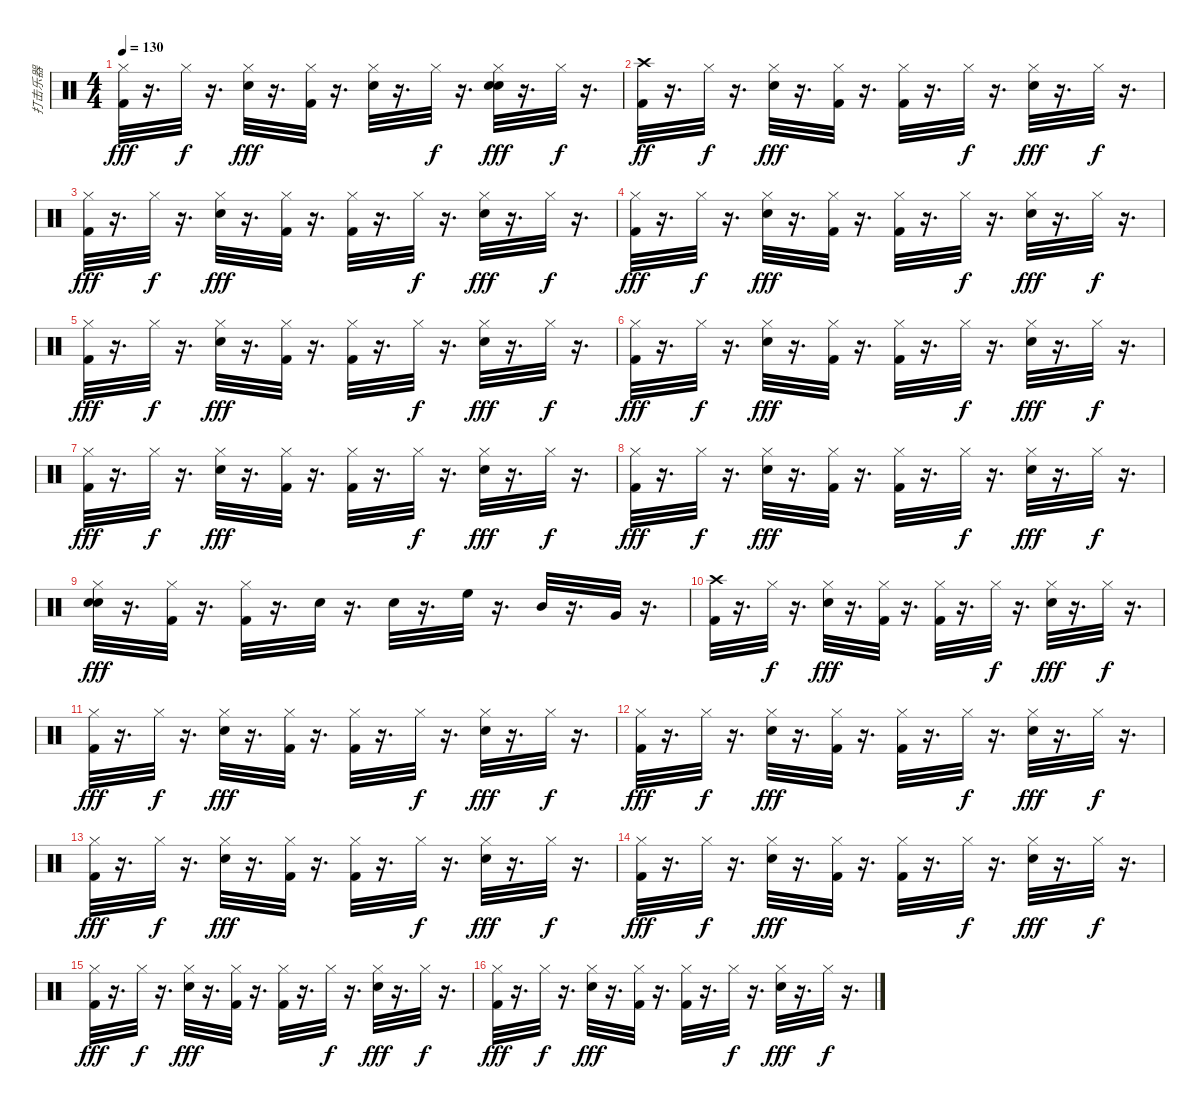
\track ("打击乐器" "打击乐器") {instrument percussion}
\staff {score}
\articulation defaults
\ts (4 4)
\tempo 130
\clef neutral
\ks c
("Kick (hit) 2" "Hi-Hat (closed)").32{dy fff} r.16{d} "Hi-Hat (closed)".32{dy f} r.16{d} ("Hi-Hat (closed)" "Electric Snare (hit)").32{dy fff} r.16{d} ("Kick (hit) 2" "Hi-Hat (closed)").32 r.16{d} ("Electric Snare (hit)" "Hi-Hat (closed)").32 r.16{d} "Hi-Hat (closed)".32{dy f} r.16{d} ("Electric Snare (hit)" "Hi-Hat (closed)" "Electric Snare (hit)").32{dy fff} r.16{d} "Hi-Hat (closed)".32{dy f} r.16{d} |
("Kick (hit) 2" "Crash high (hit)").32{dy ff} r.16{d} "Hi-Hat (closed)".32{dy f} r.16{d} ("Hi-Hat (closed)" "Electric Snare (hit)").32{dy fff} r.16{d} ("Kick (hit) 2" "Hi-Hat (closed)").32 r.16{d} ("Kick (hit) 2" "Hi-Hat (closed)").32 r.16{d} "Hi-Hat (closed)".32{dy f} r.16{d} ("Hi-Hat (closed)" "Electric Snare (hit)").32{dy fff} r.16{d} "Hi-Hat (closed)".32{dy f} r.16{d} |
("Kick (hit) 2" "Hi-Hat (closed)").32{dy fff} r.16{d} "Hi-Hat (closed)".32{dy f} r.16{d} ("Hi-Hat (closed)" "Electric Snare (hit)").32{dy fff} r.16{d} ("Kick (hit) 2" "Hi-Hat (closed)").32 r.16{d} ("Kick (hit) 2" "Hi-Hat (closed)").32 r.16{d} "Hi-Hat (closed)".32{dy f} r.16{d} ("Hi-Hat (closed)" "Electric Snare (hit)").32{dy fff} r.16{d} "Hi-Hat (closed)".32{dy f} r.16{d} |
("Kick (hit) 2" "Hi-Hat (closed)").32{dy fff} r.16{d} "Hi-Hat (closed)".32{dy f} r.16{d} ("Hi-Hat (closed)" "Electric Snare (hit)").32{dy fff} r.16{d} ("Kick (hit) 2" "Hi-Hat (closed)").32 r.16{d} ("Kick (hit) 2" "Hi-Hat (closed)").32 r.16{d} "Hi-Hat (closed)".32{dy f} r.16{d} ("Hi-Hat (closed)" "Electric Snare (hit)").32{dy fff} r.16{d} "Hi-Hat (closed)".32{dy f} r.16{d} |
("Kick (hit) 2" "Hi-Hat (closed)").32{dy fff} r.16{d} "Hi-Hat (closed)".32{dy f} r.16{d} ("Hi-Hat (closed)" "Electric Snare (hit)").32{dy fff} r.16{d} ("Kick (hit) 2" "Hi-Hat (closed)").32 r.16{d} ("Kick (hit) 2" "Hi-Hat (closed)").32 r.16{d} "Hi-Hat (closed)".32{dy f} r.16{d} ("Hi-Hat (closed)" "Electric Snare (hit)").32{dy fff} r.16{d} "Hi-Hat (closed)".32{dy f} r.16{d} |
("Kick (hit) 2" "Hi-Hat (closed)").32{dy fff} r.16{d} "Hi-Hat (closed)".32{dy f} r.16{d} ("Hi-Hat (closed)" "Electric Snare (hit)").32{dy fff} r.16{d} ("Kick (hit) 2" "Hi-Hat (closed)").32 r.16{d} ("Kick (hit) 2" "Hi-Hat (closed)").32 r.16{d} "Hi-Hat (closed)".32{dy f} r.16{d} ("Hi-Hat (closed)" "Electric Snare (hit)").32{dy fff} r.16{d} "Hi-Hat (closed)".32{dy f} r.16{d} |
("Kick (hit) 2" "Hi-Hat (closed)").32{dy fff} r.16{d} "Hi-Hat (closed)".32{dy f} r.16{d} ("Hi-Hat (closed)" "Electric Snare (hit)").32{dy fff} r.16{d} ("Kick (hit) 2" "Hi-Hat (closed)").32 r.16{d} ("Kick (hit) 2" "Hi-Hat (closed)").32 r.16{d} "Hi-Hat (closed)".32{dy f} r.16{d} ("Hi-Hat (closed)" "Electric Snare (hit)").32{dy fff} r.16{d} "Hi-Hat (closed)".32{dy f} r.16{d} |
("Kick (hit) 2" "Hi-Hat (closed)").32{dy fff} r.16{d} "Hi-Hat (closed)".32{dy f} r.16{d} ("Hi-Hat (closed)" "Electric Snare (hit)").32{dy fff} r.16{d} ("Kick (hit) 2" "Hi-Hat (closed)").32 r.16{d} ("Kick (hit) 2" "Hi-Hat (closed)").32 r.16{d} "Hi-Hat (closed)".32{dy f} r.16{d} ("Hi-Hat (closed)" "Electric Snare (hit)").32{dy fff} r.16{d} "Hi-Hat (closed)".32{dy f} r.16{d} |
("Electric Snare (hit)" "Hi-Hat (closed)" "Electric Snare (hit)").32{dy fff} r.16{d} ("Kick (hit) 2" "Hi-Hat (closed)").32 r.16{d} ("Hi-Hat (closed)" "Kick (hit) 2").32 r.16{d} "Electric Snare (hit)".32 r.16{d} "Electric Snare (hit)".32 r.16{d} "High Floor Tom (hit)".32 r.16{d} "Mid Tom (hit)".32 r.16{d} "Very Low Tom (hit)".32 r.16{d} |
("Crash high (hit)" "Kick (hit) 2").32 r.16{d} "Hi-Hat (closed)".32{dy f} r.16{d} ("Hi-Hat (closed)" "Electric Snare (hit)").32{dy fff} r.16{d} ("Kick (hit) 2" "Hi-Hat (closed)").32 r.16{d} ("Kick (hit) 2" "Hi-Hat (closed)").32 r.16{d} "Hi-Hat (closed)".32{dy f} r.16{d} ("Hi-Hat (closed)" "Electric Snare (hit)").32{dy fff} r.16{d} "Hi-Hat (closed)".32{dy f} r.16{d} |
("Kick (hit) 2" "Hi-Hat (closed)").32{dy fff} r.16{d} "Hi-Hat (closed)".32{dy f} r.16{d} ("Hi-Hat (closed)" "Electric Snare (hit)").32{dy fff} r.16{d} ("Kick (hit) 2" "Hi-Hat (closed)").32 r.16{d} ("Kick (hit) 2" "Hi-Hat (closed)").32 r.16{d} "Hi-Hat (closed)".32{dy f} r.16{d} ("Hi-Hat (closed)" "Electric Snare (hit)").32{dy fff} r.16{d} "Hi-Hat (closed)".32{dy f} r.16{d} |
("Kick (hit) 2" "Hi-Hat (closed)").32{dy fff} r.16{d} "Hi-Hat (closed)".32{dy f} r.16{d} ("Hi-Hat (closed)" "Electric Snare (hit)").32{dy fff} r.16{d} ("Kick (hit) 2" "Hi-Hat (closed)").32 r.16{d} ("Kick (hit) 2" "Hi-Hat (closed)").32 r.16{d} "Hi-Hat (closed)".32{dy f} r.16{d} ("Hi-Hat (closed)" "Electric Snare (hit)").32{dy fff} r.16{d} "Hi-Hat (closed)".32{dy f} r.16{d} |
("Kick (hit) 2" "Hi-Hat (closed)").32{dy fff} r.16{d} "Hi-Hat (closed)".32{dy f} r.16{d} ("Hi-Hat (closed)" "Electric Snare (hit)").32{dy fff} r.16{d} ("Kick (hit) 2" "Hi-Hat (closed)").32 r.16{d} ("Kick (hit) 2" "Hi-Hat (closed)").32 r.16{d} "Hi-Hat (closed)".32{dy f} r.16{d} ("Hi-Hat (closed)" "Electric Snare (hit)").32{dy fff} r.16{d} "Hi-Hat (closed)".32{dy f} r.16{d} |
("Kick (hit) 2" "Hi-Hat (closed)").32{dy fff} r.16{d} "Hi-Hat (closed)".32{dy f} r.16{d} ("Hi-Hat (closed)" "Electric Snare (hit)").32{dy fff} r.16{d} ("Kick (hit) 2" "Hi-Hat (closed)").32 r.16{d} ("Kick (hit) 2" "Hi-Hat (closed)").32 r.16{d} "Hi-Hat (closed)".32{dy f} r.16{d} ("Hi-Hat (closed)" "Electric Snare (hit)").32{dy fff} r.16{d} "Hi-Hat (closed)".32{dy f} r.16{d} |
("Kick (hit) 2" "Hi-Hat (closed)").32{dy fff} r.16{d} "Hi-Hat (closed)".32{dy f} r.16{d} ("Hi-Hat (closed)" "Electric Snare (hit)").32{dy fff} r.16{d} ("Kick (hit) 2" "Hi-Hat (closed)").32 r.16{d} ("Kick (hit) 2" "Hi-Hat (closed)").32 r.16{d} "Hi-Hat (closed)".32{dy f} r.16{d} ("Hi-Hat (closed)" "Electric Snare (hit)").32{dy fff} r.16{d} "Hi-Hat (closed)".32{dy f} r.16{d} |
("Kick (hit) 2" "Hi-Hat (closed)").32{dy fff} r.16{d} "Hi-Hat (closed)".32{dy f} r.16{d} ("Hi-Hat (closed)" "Electric Snare (hit)").32{dy fff} r.16{d} ("Kick (hit) 2" "Hi-Hat (closed)").32 r.16{d} ("Kick (hit) 2" "Hi-Hat (closed)").32 r.16{d} "Hi-Hat (closed)".32{dy f} r.16{d} ("Hi-Hat (closed)" "Electric Snare (hit)").32{dy fff} r.16{d} "Hi-Hat (closed)".32{dy f} r.16{d}
